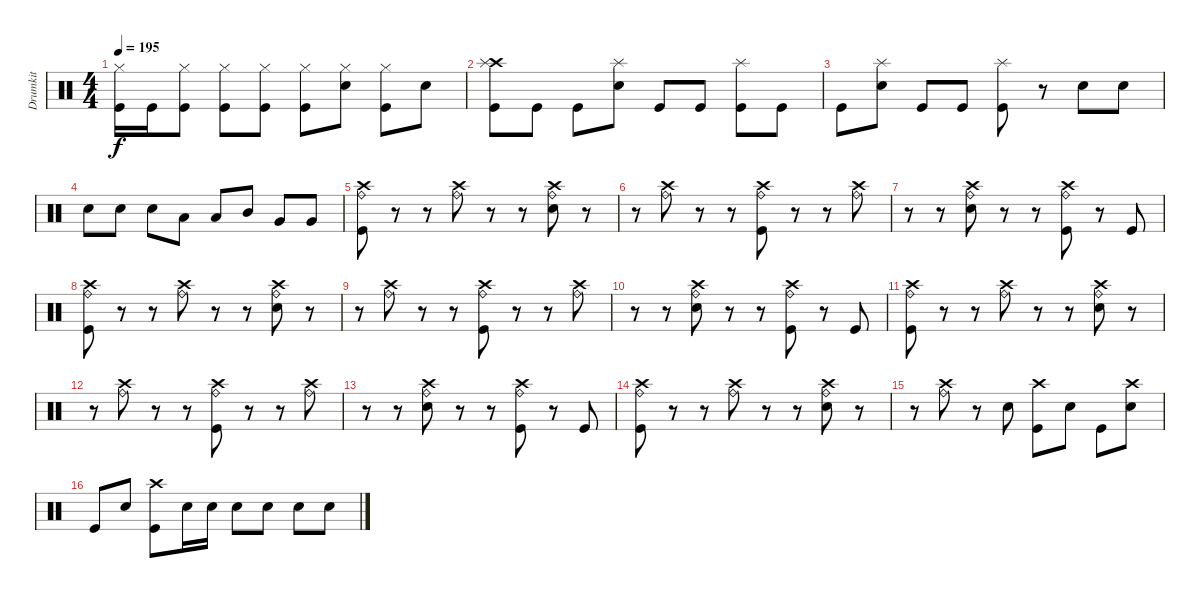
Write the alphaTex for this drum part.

\track ("Drumkit" "Drumkit") {instrument percussion}
\staff {score}
\articulation defaults
\ts (4 4)
\tempo 195
\clef neutral
\ks c
("Kick (hit)" "Hi-Hat (closed)").16{dy f} "Kick (hit)".16 ("Kick (hit)" "Hi-Hat (closed)").8 ("Kick (hit)" "Hi-Hat (closed)").8 ("Kick (hit)" "Hi-Hat (closed)").8 ("Kick (hit)" "Hi-Hat (closed)").8 ("Snare (hit) 2" "Hi-Hat (closed)").8 ("Kick (hit)" "Hi-Hat (closed)").8 "Snare (hit) 2".8 |
("Kick (hit)" "Crash high (hit)" "Splash (hit)").8 "Kick (hit)".8 "Kick (hit)".8 ("Snare (hit) 2" "Splash (hit)").8 "Kick (hit)".8 "Kick (hit)".8 ("Kick (hit)" "Splash (hit)").8 "Kick (hit)".8 |
"Kick (hit)".8 ("Snare (hit) 2" "Splash (hit)").8 "Kick (hit)".8 "Kick (hit)".8 ("Kick (hit)" "Splash (hit)").8 r.8 "Snare (hit) 2".8 "Snare (hit) 2".8 |
"Snare (hit) 2".8 "Snare (hit) 2".8 "Snare (hit) 2".8 "Low Floor Tom (hit)".8 "Low Floor Tom (hit)".8 "Mid Tom (hit)".8 "Very Low Tom (hit)".8 "Very Low Tom (hit)".8 |
("Kick (hit)" "Crash high (hit)" "Ride (bell)").8 r.8 r.8 ("Crash high (hit)" "Ride (bell)").8 r.8 r.8 ("Snare (hit) 2" "Crash high (hit)" "Ride (bell)").8 r.8 |
r.8 ("Crash high (hit)" "Ride (bell)").8 r.8 r.8 ("Kick (hit)" "Crash high (hit)" "Ride (bell)").8 r.8 r.8 ("Crash high (hit)" "Ride (bell)").8 |
r.8 r.8 ("Snare (hit) 2" "Ride (bell)" "Crash high (hit)").8 r.8 r.8 ("Kick (hit)" "Ride (bell)" "Crash high (hit)").8 r.8 "Kick (hit)".8 |
("Kick (hit)" "Ride (bell)" "Crash high (hit)").8 r.8 r.8 ("Ride (bell)" "Crash high (hit)").8 r.8 r.8 ("Snare (hit) 2" "Ride (bell)" "Crash high (hit)").8 r.8 |
r.8 ("Ride (bell)" "Crash high (hit)").8 r.8 r.8 ("Kick (hit)" "Ride (bell)" "Crash high (hit)").8 r.8 r.8 ("Ride (bell)" "Crash high (hit)").8 |
r.8 r.8 ("Snare (hit) 2" "Ride (bell)" "Crash high (hit)").8 r.8 r.8 ("Kick (hit)" "Ride (bell)" "Crash high (hit)").8 r.8 "Kick (hit)".8 |
("Kick (hit)" "Ride (bell)" "Crash high (hit)").8 r.8 r.8 ("Ride (bell)" "Crash high (hit)").8 r.8 r.8 ("Snare (hit) 2" "Ride (bell)" "Crash high (hit)").8 r.8 |
r.8 ("Ride (bell)" "Crash high (hit)").8 r.8 r.8 ("Kick (hit)" "Ride (bell)" "Crash high (hit)").8 r.8 r.8 ("Ride (bell)" "Crash high (hit)").8 |
r.8 r.8 ("Snare (hit) 2" "Ride (bell)" "Crash high (hit)").8 r.8 r.8 ("Kick (hit)" "Ride (bell)" "Crash high (hit)").8 r.8 "Kick (hit)".8 |
("Kick (hit)" "Ride (bell)" "Crash high (hit)").8 r.8 r.8 ("Ride (bell)" "Crash high (hit)").8 r.8 r.8 ("Snare (hit) 2" "Ride (bell)" "Crash high (hit)").8 r.8 |
r.8 ("Ride (bell)" "Crash high (hit)").8 r.8 "Snare (hit) 2".8 ("Kick (hit)" "Crash high (hit)").8 "Snare (hit) 2".8 "Kick (hit)".8 ("Snare (hit) 2" "Crash high (hit)").8 |
"Kick (hit)".8 "Snare (hit) 2".8 ("Kick (hit)" "Crash high (hit)").8 "Snare (hit) 2".16 "Snare (hit) 2".16 "Snare (hit) 2".8 "Snare (hit) 2".8 "Snare (hit) 2".8 "Snare (hit) 2".8
